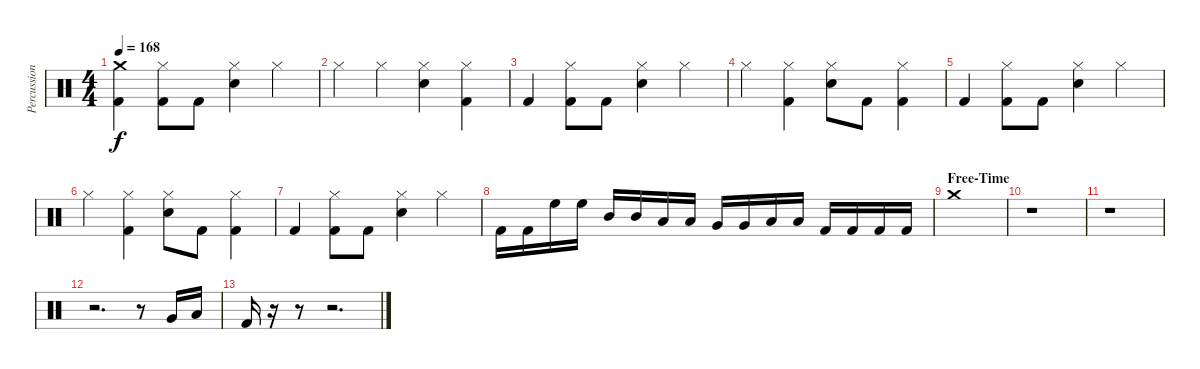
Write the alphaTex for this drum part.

\track ("Percussion" "Percussion") {instrument percussion}
\staff {score}
\articulation defaults
\ts (4 4)
\tempo 168
\clef neutral
\ks c
("Crash medium (hit)" "Kick (hit) 2").4{dy f} ("Hi-Hat (closed)" "Kick (hit) 2").8 "Kick (hit) 2".8 ("Hi-Hat (closed)" "Snare (hit) 2").4 "Hi-Hat (closed)".4 |
"Hi-Hat (closed)".4 "Hi-Hat (closed)".4 ("Hi-Hat (closed)" "Snare (hit) 2").4 ("Hi-Hat (closed)" "Kick (hit) 2").4 |
"Kick (hit) 2".4 ("Hi-Hat (closed)" "Kick (hit) 2").8 "Kick (hit) 2".8 ("Hi-Hat (closed)" "Snare (hit) 2").4 "Hi-Hat (closed)".4 |
"Hi-Hat (closed)".4 ("Hi-Hat (closed)" "Kick (hit) 2").4 ("Hi-Hat (closed)" "Snare (hit) 2").8 "Kick (hit) 2".8 ("Hi-Hat (closed)" "Kick (hit) 2").4 |
"Kick (hit) 2".4 ("Hi-Hat (closed)" "Kick (hit) 2").8 "Kick (hit) 2".8 ("Hi-Hat (closed)" "Snare (hit) 2").4 "Hi-Hat (closed)".4 |
"Hi-Hat (closed)".4 ("Hi-Hat (closed)" "Kick (hit) 2").4 ("Hi-Hat (closed)" "Snare (hit) 2").8 "Kick (hit) 2".8 ("Hi-Hat (closed)" "Kick (hit) 2").4 |
"Kick (hit) 2".4 ("Hi-Hat (closed)" "Kick (hit) 2").8 "Kick (hit) 2".8 ("Hi-Hat (closed)" "Snare (hit) 2").4 "Hi-Hat (closed)".4 |
"Kick (hit) 2".16 "Kick (hit) 2".16 "High Floor Tom (hit)".16 "High Floor Tom (hit)".16 "Mid Tom (hit)".16 "Mid Tom (hit)".16 "Low Tom (hit)".16 "Low Tom (hit)".16 "Very Low Tom (hit)".16 "Very Low Tom (hit)".16 "Low Floor Tom (hit)".16 "Low Floor Tom (hit)".16 "Kick (hit) 2".16 "Kick (hit) 2".16 "Kick (hit) 2".16 "Kick (hit) 2".16 |
\section ("" "Free-Time")
"Crash medium (hit)".1 |
r.1 |
r.1 |
r.2{d} r.8 "Very Low Tom (hit)".16 "Low Floor Tom (hit)".16 |
"Kick (hit) 2".16 r.16 r.8 r.2{d}
